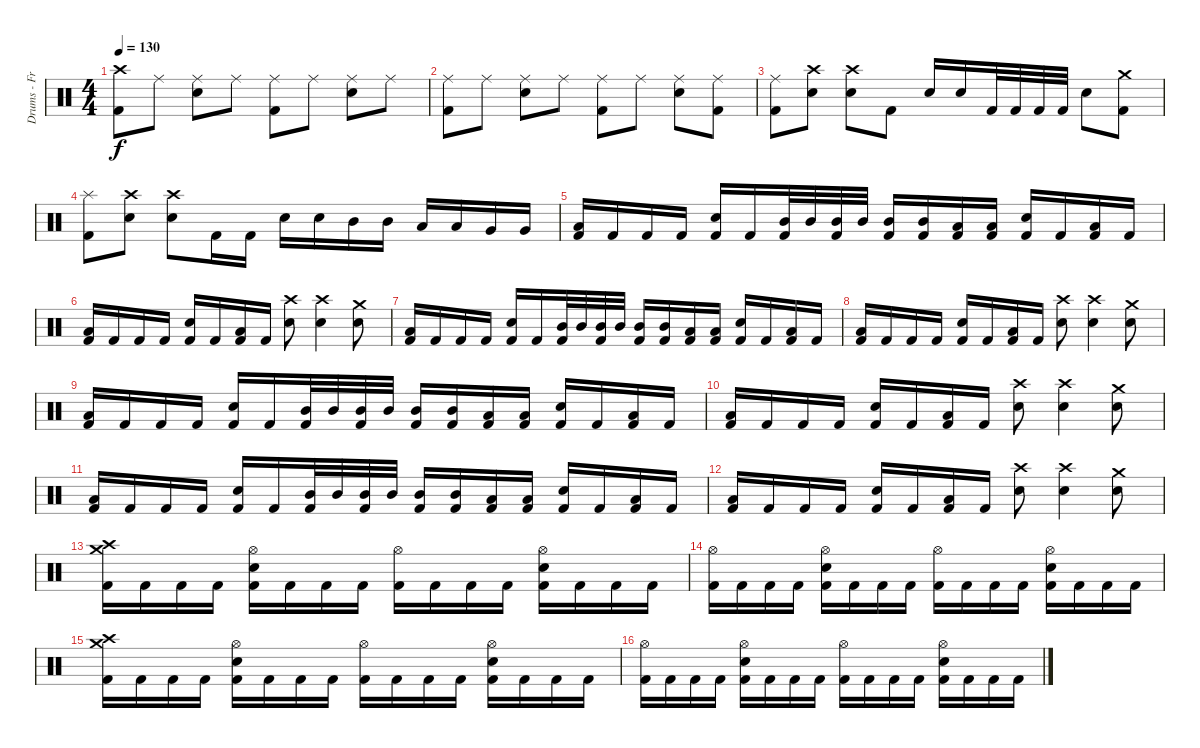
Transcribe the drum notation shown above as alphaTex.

\track ("Drums - Fredrik Andersson" "Drums - Fr") {instrument percussion}
\staff {score}
\articulation defaults
\ts (4 4)
\tempo 130
\clef neutral
\ks c
("Kick (hit) 2" "Crash high (hit)").8{dy f} "Ride (middle)".8 ("Snare (hit) 2" "Ride (middle)").8 "Ride (middle)".8 ("Kick (hit) 2" "Ride (middle)").8 "Ride (middle)".8 ("Snare (hit) 2" "Ride (middle)").8 "Ride (middle)".8 |
("Kick (hit) 2" "Ride (middle)").8 "Ride (middle)".8 ("Snare (hit) 2" "Ride (middle)").8 "Ride (middle)".8 ("Kick (hit) 2" "Ride (middle)").8 "Ride (middle)".8 ("Snare (hit) 2" "Ride (middle)").8 ("Kick (hit) 2" "Ride (middle)").8 |
("Ride (middle)" "Kick (hit) 2").8 ("Snare (hit) 2" "Crash high (hit)").8 ("Snare (hit) 2" "Crash high (hit)").8 "Kick (hit) 2".8 "Snare (hit) 2".16 "Snare (hit) 2".16 "Kick (hit) 2".32 "Kick (hit) 2".32 "Kick (hit) 2".32 "Kick (hit) 2".32 "Snare (hit) 2".8 ("Crash medium (hit)" "Kick (hit) 2").8 |
("Kick (hit) 2" "Splash (hit)").8 ("Snare (hit) 2" "Crash high (hit)").8 ("Snare (hit) 2" "Crash high (hit)").8 "Kick (hit) 2".16 "Kick (hit) 2".16 "Snare (hit) 2".16 "Snare (hit) 2".16 "Mid Tom (hit)".16 "Mid Tom (hit)".16 "Low Tom (hit)".16 "Low Tom (hit)".16 "Very Low Tom (hit)".16 "Very Low Tom (hit)".16 |
("Kick (hit) 2" "Low Floor Tom (hit)").16 "Kick (hit) 2".16 "Kick (hit) 2".16 "Kick (hit) 2".16 ("Kick (hit) 2" "Snare (hit) 2").16 "Kick (hit) 2".16 ("Kick (hit) 2" "Mid Tom (hit)").32 "Mid Tom (hit)".32 ("Kick (hit) 2" "Mid Tom (hit)").32 "Mid Tom (hit)".32 ("Kick (hit) 2" "Mid Tom (hit)").16 ("Kick (hit) 2" "Mid Tom (hit)").16 ("Kick (hit) 2" "Low Tom (hit)").16 ("Kick (hit) 2" "Low Tom (hit)").16 ("Kick (hit) 2" "Snare (hit) 2").16 "Kick (hit) 2".16 ("Kick (hit) 2" "Low Floor Tom (hit)").16 "Kick (hit) 2".16 |
("Kick (hit) 2" "Low Floor Tom (hit)").16 "Kick (hit) 2".16 "Kick (hit) 2".16 "Kick (hit) 2".16 ("Kick (hit) 2" "Snare (hit) 2").16 "Kick (hit) 2".16 ("Kick (hit) 2" "Low Floor Tom (hit)").16 "Kick (hit) 2".16 ("Crash high (hit)" "Snare (hit) 2").8 ("Crash high (hit)" "Snare (hit) 2").4 ("Crash medium (hit)" "Snare (hit) 2").8 |
("Kick (hit) 2" "Low Floor Tom (hit)").16 "Kick (hit) 2".16 "Kick (hit) 2".16 "Kick (hit) 2".16 ("Kick (hit) 2" "Snare (hit) 2").16 "Kick (hit) 2".16 ("Kick (hit) 2" "Mid Tom (hit)").32 "Mid Tom (hit)".32 ("Kick (hit) 2" "Mid Tom (hit)").32 "Mid Tom (hit)".32 ("Kick (hit) 2" "Mid Tom (hit)").16 ("Kick (hit) 2" "Mid Tom (hit)").16 ("Kick (hit) 2" "Low Tom (hit)").16 ("Kick (hit) 2" "Low Tom (hit)").16 ("Kick (hit) 2" "Snare (hit) 2").16 "Kick (hit) 2".16 ("Kick (hit) 2" "Low Floor Tom (hit)").16 "Kick (hit) 2".16 |
("Kick (hit) 2" "Low Floor Tom (hit)").16 "Kick (hit) 2".16 "Kick (hit) 2".16 "Kick (hit) 2".16 ("Kick (hit) 2" "Snare (hit) 2").16 "Kick (hit) 2".16 ("Kick (hit) 2" "Low Floor Tom (hit)").16 "Kick (hit) 2".16 ("Crash high (hit)" "Snare (hit) 2").8 ("Crash high (hit)" "Snare (hit) 2").4 ("Crash medium (hit)" "Snare (hit) 2").8 |
("Kick (hit) 2" "Low Floor Tom (hit)").16 "Kick (hit) 2".16 "Kick (hit) 2".16 "Kick (hit) 2".16 ("Kick (hit) 2" "Snare (hit) 2").16 "Kick (hit) 2".16 ("Kick (hit) 2" "Mid Tom (hit)").32 "Mid Tom (hit)".32 ("Kick (hit) 2" "Mid Tom (hit)").32 "Mid Tom (hit)".32 ("Kick (hit) 2" "Mid Tom (hit)").16 ("Kick (hit) 2" "Mid Tom (hit)").16 ("Kick (hit) 2" "Low Tom (hit)").16 ("Kick (hit) 2" "Low Tom (hit)").16 ("Kick (hit) 2" "Snare (hit) 2").16 "Kick (hit) 2".16 ("Kick (hit) 2" "Low Floor Tom (hit)").16 "Kick (hit) 2".16 |
("Kick (hit) 2" "Low Floor Tom (hit)").16 "Kick (hit) 2".16 "Kick (hit) 2".16 "Kick (hit) 2".16 ("Kick (hit) 2" "Snare (hit) 2").16 "Kick (hit) 2".16 ("Kick (hit) 2" "Low Floor Tom (hit)").16 "Kick (hit) 2".16 ("Crash high (hit)" "Snare (hit) 2").8 ("Crash high (hit)" "Snare (hit) 2").4 ("Crash medium (hit)" "Snare (hit) 2").8 |
("Kick (hit) 2" "Low Floor Tom (hit)").16 "Kick (hit) 2".16 "Kick (hit) 2".16 "Kick (hit) 2".16 ("Kick (hit) 2" "Snare (hit) 2").16 "Kick (hit) 2".16 ("Kick (hit) 2" "Mid Tom (hit)").32 "Mid Tom (hit)".32 ("Kick (hit) 2" "Mid Tom (hit)").32 "Mid Tom (hit)".32 ("Kick (hit) 2" "Mid Tom (hit)").16 ("Kick (hit) 2" "Mid Tom (hit)").16 ("Kick (hit) 2" "Low Tom (hit)").16 ("Kick (hit) 2" "Low Tom (hit)").16 ("Kick (hit) 2" "Snare (hit) 2").16 "Kick (hit) 2".16 ("Kick (hit) 2" "Low Floor Tom (hit)").16 "Kick (hit) 2".16 |
("Kick (hit) 2" "Low Floor Tom (hit)").16 "Kick (hit) 2".16 "Kick (hit) 2".16 "Kick (hit) 2".16 ("Kick (hit) 2" "Snare (hit) 2").16 "Kick (hit) 2".16 ("Kick (hit) 2" "Low Floor Tom (hit)").16 "Kick (hit) 2".16 ("Crash high (hit)" "Snare (hit) 2").8 ("Crash high (hit)" "Snare (hit) 2").4 ("Crash medium (hit)" "Snare (hit) 2").8 |
("Kick (hit) 2" "Crash high (hit)" "Crash medium (hit)").16 "Kick (hit) 2".16 "Kick (hit) 2".16 "Kick (hit) 2".16 ("Kick (hit) 2" "Snare (hit) 2" "Hi-Hat (open)").16 "Kick (hit) 2".16 "Kick (hit) 2".16 "Kick (hit) 2".16 ("Kick (hit) 2" "Hi-Hat (open)").16 "Kick (hit) 2".16 "Kick (hit) 2".16 "Kick (hit) 2".16 ("Kick (hit) 2" "Snare (hit) 2" "Hi-Hat (open)").16 "Kick (hit) 2".16 "Kick (hit) 2".16 "Kick (hit) 2".16 |
("Kick (hit) 2" "Hi-Hat (open)").16 "Kick (hit) 2".16 "Kick (hit) 2".16 "Kick (hit) 2".16 ("Kick (hit) 2" "Snare (hit) 2" "Hi-Hat (open)").16 "Kick (hit) 2".16 "Kick (hit) 2".16 "Kick (hit) 2".16 ("Kick (hit) 2" "Hi-Hat (open)").16 "Kick (hit) 2".16 "Kick (hit) 2".16 "Kick (hit) 2".16 ("Kick (hit) 2" "Snare (hit) 2" "Hi-Hat (open)").16 "Kick (hit) 2".16 "Kick (hit) 2".16 "Kick (hit) 2".16 |
("Kick (hit) 2" "Crash high (hit)" "Crash medium (hit)").16 "Kick (hit) 2".16 "Kick (hit) 2".16 "Kick (hit) 2".16 ("Kick (hit) 2" "Snare (hit) 2" "Hi-Hat (open)").16 "Kick (hit) 2".16 "Kick (hit) 2".16 "Kick (hit) 2".16 ("Kick (hit) 2" "Hi-Hat (open)").16 "Kick (hit) 2".16 "Kick (hit) 2".16 "Kick (hit) 2".16 ("Kick (hit) 2" "Snare (hit) 2" "Hi-Hat (open)").16 "Kick (hit) 2".16 "Kick (hit) 2".16 "Kick (hit) 2".16 |
("Kick (hit) 2" "Hi-Hat (open)").16 "Kick (hit) 2".16 "Kick (hit) 2".16 "Kick (hit) 2".16 ("Kick (hit) 2" "Snare (hit) 2" "Hi-Hat (open)").16 "Kick (hit) 2".16 "Kick (hit) 2".16 "Kick (hit) 2".16 ("Kick (hit) 2" "Hi-Hat (open)").16 "Kick (hit) 2".16 "Kick (hit) 2".16 "Kick (hit) 2".16 ("Kick (hit) 2" "Snare (hit) 2" "Hi-Hat (open)").16 "Kick (hit) 2".16 "Kick (hit) 2".16 "Kick (hit) 2".16
